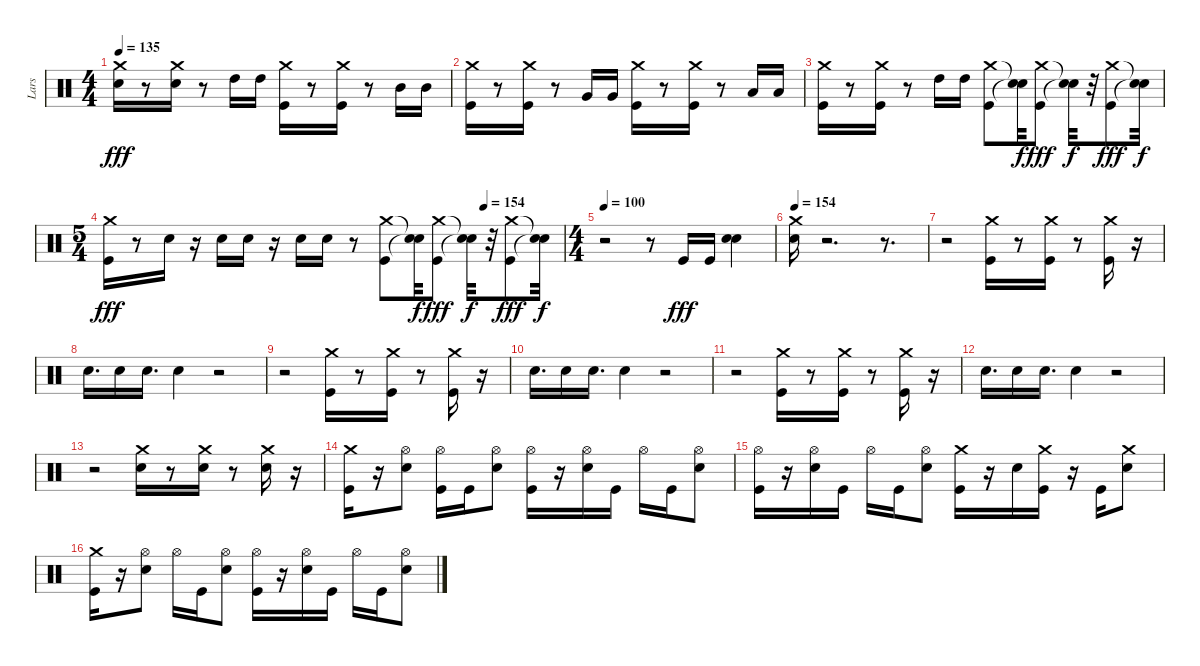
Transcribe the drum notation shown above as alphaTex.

\track ("Lars" "Lars") {instrument percussion bank 102}
\staff {score}
\articulation defaults
\ts (4 4)
\tempo 135
\clef neutral
\ks c
("Crash medium (hit)" "Snare (hit) 2").16{dy fff} r.8 ("Snare (hit) 2" "Crash medium (hit)").16 r.8 "High Tom (hit)".16 "High Tom (hit)".16 ("Crash medium (hit)" "Kick (hit)").16 r.8 ("Crash medium (hit)" "Kick (hit)").16 r.8 "Mid Tom (hit)".16 "Mid Tom (hit)".16 |
("Crash medium (hit)" "Kick (hit)").16 r.8 ("Crash medium (hit)" "Kick (hit)").16 r.8 "Very Low Tom (hit)".16 "Very Low Tom (hit)".16 ("Crash medium (hit)" "Kick (hit)").16 r.8 ("Crash medium (hit)" "Kick (hit)").16 r.8 "Low Tom (hit)".16 "Low Tom (hit)".16 |
("Crash medium (hit)" "Kick (hit)").16 r.8 ("Crash medium (hit)" "Kick (hit)").16 r.8 "High Tom (hit)".16 "High Tom (hit)".16 ("Kick (hit)" "Crash medium (hit)").8 ("Snare (hit)"{t} "Snare (hit)"{t}).32{dy f} ("Kick (hit)" "Crash medium (hit)").8{dy fff} ("Snare (hit)"{t} "Snare (hit)"{t}).32{dy f} r.32 ("Kick (hit)" "Crash medium (hit)").8{dy fff} ("Snare (hit)"{t} "Snare (hit)"{t}).32{dy f} |
\ts (5 4)
\tempo (154 0.825)
("Crash medium (hit)" "Kick (hit)").16{dy fff} r.8 "Snare (hit) 2".16 r.16 "Snare (hit) 2".16 "Snare (hit) 2".16 r.16 "Snare (hit) 2".16 "Snare (hit) 2".16 r.8 ("Kick (hit)" "Crash medium (hit)").8 ("Snare (hit)"{t} "Snare (hit)"{t}).32{dy f} ("Kick (hit)" "Crash medium (hit)").8{dy fff} ("Snare (hit)"{t} "Snare (hit)"{t}).32{dy f} r.32 ("Crash medium (hit)" "Kick (hit)").8{dy fff} ("Snare (hit)"{t} "Snare (hit)"{t}).32{dy f} |
\ts (4 4)
\tempo 100
r.2 r.8 "Kick (hit)".16{dy fff} "Kick (hit)".16 ("Snare (hit) 2" "Snare (hit) 2").4 |
\tempo 154
("Crash medium (hit)" "Snare (hit) 2").16 r.2{d} r.8{d} |
r.2 ("Crash medium (hit)" "Kick (hit)").16 r.8 ("Crash medium (hit)" "Kick (hit)").16 r.8 ("Crash medium (hit)" "Kick (hit)").16 r.16 |
"Snare (hit) 2".16{d} "Snare (hit) 2".16 "Snare (hit) 2".16{d} "Snare (hit) 2".4 r.2 |
r.2 ("Crash medium (hit)" "Kick (hit)").16 r.8 ("Kick (hit)" "Crash medium (hit)").16 r.8 ("Crash medium (hit)" "Kick (hit)").16 r.16 |
"Snare (hit) 2".16{d} "Snare (hit) 2".16 "Snare (hit) 2".16{d} "Snare (hit) 2".4 r.2 |
r.2 ("Crash medium (hit)" "Kick (hit)").16 r.8 ("Kick (hit)" "Crash medium (hit)").16 r.8 ("Crash medium (hit)" "Kick (hit)").16 r.16 |
"Snare (hit) 2".16{d} "Snare (hit) 2".16 "Snare (hit) 2".16{d} "Snare (hit) 2".4 r.2 |
r.2 ("Snare (hit) 2" "Crash medium (hit)").16 r.8 ("Snare (hit) 2" "Crash medium (hit)").16 r.8 ("Snare (hit) 2" "Crash medium (hit)").16 r.16 |
("Kick (hit)" "Crash medium (hit)").16 r.16 ("Snare (hit) 2" "Hi-Hat (open)").8 ("Kick (hit)" "Hi-Hat (open)").16 "Kick (hit)".16 ("Snare (hit) 2" "Hi-Hat (open)").8 ("Kick (hit)" "Hi-Hat (open)").16 r.16 ("Snare (hit) 2" "Hi-Hat (open)").16 "Kick (hit)".16 "Hi-Hat (open)".16 "Kick (hit)".16 ("Snare (hit) 2" "Hi-Hat (open)").8 |
("Hi-Hat (open)" "Kick (hit)").16 r.16 ("Snare (hit) 2" "Hi-Hat (open)").16 "Kick (hit)".16 "Hi-Hat (open)".16 "Kick (hit)".16 ("Snare (hit) 2" "Hi-Hat (open)").8 ("Crash medium (hit)" "Kick (hit)").16 r.16 "Snare (hit) 2".16 ("Crash medium (hit)" "Kick (hit)").16 r.16 "Kick (hit)".16 ("Crash medium (hit)" "Snare (hit) 2").8 |
("Kick (hit)" "Crash medium (hit)").16 r.16 ("Snare (hit) 2" "Hi-Hat (open)").8 "Hi-Hat (open)".16 "Kick (hit)".16 ("Snare (hit) 2" "Hi-Hat (open)").8 ("Kick (hit)" "Hi-Hat (open)").16 r.16 ("Snare (hit) 2" "Hi-Hat (open)").16 "Kick (hit)".16 "Hi-Hat (open)".16 "Kick (hit)".16 ("Snare (hit) 2" "Hi-Hat (open)").8
